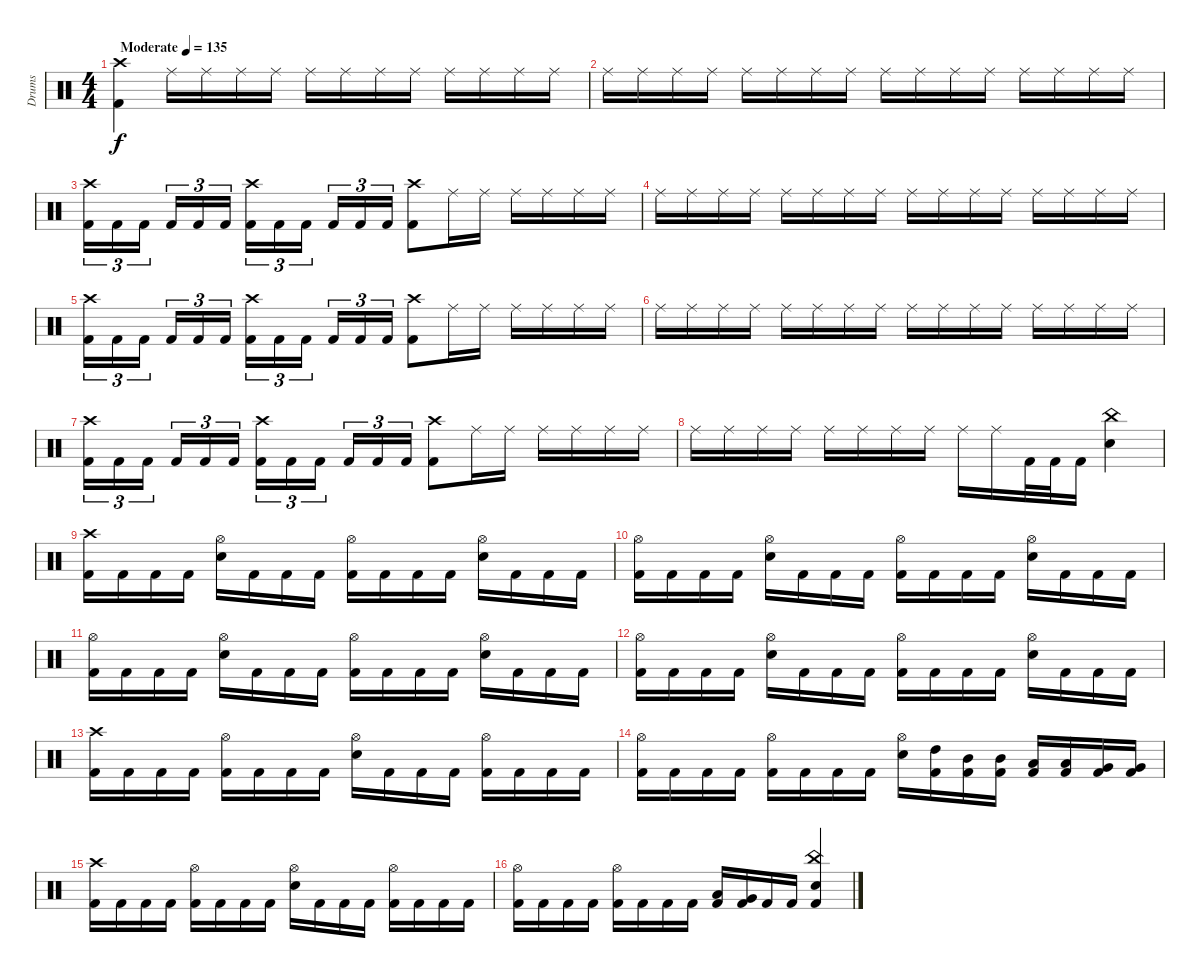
\track ("Drums" "Drums") {instrument percussion}
\staff {score}
\articulation defaults
\ts (4 4)
\tempo (135 "Moderate")
\clef neutral
\ks c
("Crash high (hit)" "Kick (hit) 2").4{dy f} "Ride (middle)".16 "Ride (middle)".16 "Ride (middle)".16 "Ride (middle)".16 "Ride (middle)".16 "Ride (middle)".16 "Ride (middle)".16 "Ride (middle)".16 "Ride (middle)".16 "Ride (middle)".16 "Ride (middle)".16 "Ride (middle)".16 |
"Ride (middle)".16 "Ride (middle)".16 "Ride (middle)".16 "Ride (middle)".16 "Ride (middle)".16 "Ride (middle)".16 "Ride (middle)".16 "Ride (middle)".16 "Ride (middle)".16 "Ride (middle)".16 "Ride (middle)".16 "Ride (middle)".16 "Ride (middle)".16 "Ride (middle)".16 "Ride (middle)".16 "Ride (middle)".16 |
("Crash high (hit)" "Kick (hit) 2").16{tu (3 2)} "Kick (hit) 2".16{tu (3 2)} "Kick (hit) 2".16{tu (3 2) beam splitsecondary} "Kick (hit) 2".16{tu (3 2)} "Kick (hit) 2".16{tu (3 2)} "Kick (hit) 2".16{tu (3 2)} ("Crash high (hit)" "Kick (hit) 2").16{tu (3 2)} "Kick (hit) 2".16{tu (3 2)} "Kick (hit) 2".16{tu (3 2) beam splitsecondary} "Kick (hit) 2".16{tu (3 2)} "Kick (hit) 2".16{tu (3 2)} "Kick (hit) 2".16{tu (3 2)} ("Crash high (hit)" "Kick (hit) 2").8 "Ride (middle)".16 "Ride (middle)".16 "Ride (middle)".16 "Ride (middle)".16 "Ride (middle)".16 "Ride (middle)".16 |
"Ride (middle)".16 "Ride (middle)".16 "Ride (middle)".16 "Ride (middle)".16 "Ride (middle)".16 "Ride (middle)".16 "Ride (middle)".16 "Ride (middle)".16 "Ride (middle)".16 "Ride (middle)".16 "Ride (middle)".16 "Ride (middle)".16 "Ride (middle)".16 "Ride (middle)".16 "Ride (middle)".16 "Ride (middle)".16 |
("Crash high (hit)" "Kick (hit) 2").16{tu (3 2)} "Kick (hit) 2".16{tu (3 2)} "Kick (hit) 2".16{tu (3 2) beam splitsecondary} "Kick (hit) 2".16{tu (3 2)} "Kick (hit) 2".16{tu (3 2)} "Kick (hit) 2".16{tu (3 2)} ("Crash high (hit)" "Kick (hit) 2").16{tu (3 2)} "Kick (hit) 2".16{tu (3 2)} "Kick (hit) 2".16{tu (3 2) beam splitsecondary} "Kick (hit) 2".16{tu (3 2)} "Kick (hit) 2".16{tu (3 2)} "Kick (hit) 2".16{tu (3 2)} ("Crash high (hit)" "Kick (hit) 2").8 "Ride (middle)".16 "Ride (middle)".16 "Ride (middle)".16 "Ride (middle)".16 "Ride (middle)".16 "Ride (middle)".16 |
"Ride (middle)".16 "Ride (middle)".16 "Ride (middle)".16 "Ride (middle)".16 "Ride (middle)".16 "Ride (middle)".16 "Ride (middle)".16 "Ride (middle)".16 "Ride (middle)".16 "Ride (middle)".16 "Ride (middle)".16 "Ride (middle)".16 "Ride (middle)".16 "Ride (middle)".16 "Ride (middle)".16 "Ride (middle)".16 |
("Crash high (hit)" "Kick (hit) 2").16{tu (3 2)} "Kick (hit) 2".16{tu (3 2)} "Kick (hit) 2".16{tu (3 2) beam splitsecondary} "Kick (hit) 2".16{tu (3 2)} "Kick (hit) 2".16{tu (3 2)} "Kick (hit) 2".16{tu (3 2)} ("Crash high (hit)" "Kick (hit) 2").16{tu (3 2)} "Kick (hit) 2".16{tu (3 2)} "Kick (hit) 2".16{tu (3 2) beam splitsecondary} "Kick (hit) 2".16{tu (3 2)} "Kick (hit) 2".16{tu (3 2)} "Kick (hit) 2".16{tu (3 2)} ("Crash high (hit)" "Kick (hit) 2").8 "Ride (middle)".16 "Ride (middle)".16 "Ride (middle)".16 "Ride (middle)".16 "Ride (middle)".16 "Ride (middle)".16 |
"Ride (middle)".16 "Ride (middle)".16 "Ride (middle)".16 "Ride (middle)".16 "Ride (middle)".16 "Ride (middle)".16 "Ride (middle)".16 "Ride (middle)".16 "Ride (middle)".16 "Ride (middle)".16 "Kick (hit) 2".32 "Kick (hit) 2".32 "Kick (hit) 2".16 ("China (hit)" "Snare (hit) 2").4 |
("Crash high (hit)" "Kick (hit) 2").16 "Kick (hit) 2".16 "Kick (hit) 2".16 "Kick (hit) 2".16 ("Hi-Hat (open)" "Snare (hit) 2").16 "Kick (hit) 2".16 "Kick (hit) 2".16 "Kick (hit) 2".16 ("Hi-Hat (open)" "Kick (hit) 2").16 "Kick (hit) 2".16 "Kick (hit) 2".16 "Kick (hit) 2".16 ("Hi-Hat (open)" "Snare (hit) 2").16 "Kick (hit) 2".16 "Kick (hit) 2".16 "Kick (hit) 2".16 |
("Hi-Hat (open)" "Kick (hit) 2").16 "Kick (hit) 2".16 "Kick (hit) 2".16 "Kick (hit) 2".16 ("Hi-Hat (open)" "Snare (hit) 2").16 "Kick (hit) 2".16 "Kick (hit) 2".16 "Kick (hit) 2".16 ("Hi-Hat (open)" "Kick (hit) 2").16 "Kick (hit) 2".16 "Kick (hit) 2".16 "Kick (hit) 2".16 ("Hi-Hat (open)" "Snare (hit) 2").16 "Kick (hit) 2".16 "Kick (hit) 2".16 "Kick (hit) 2".16 |
("Hi-Hat (open)" "Kick (hit) 2").16 "Kick (hit) 2".16 "Kick (hit) 2".16 "Kick (hit) 2".16 ("Hi-Hat (open)" "Snare (hit) 2").16 "Kick (hit) 2".16 "Kick (hit) 2".16 "Kick (hit) 2".16 ("Hi-Hat (open)" "Kick (hit) 2").16 "Kick (hit) 2".16 "Kick (hit) 2".16 "Kick (hit) 2".16 ("Hi-Hat (open)" "Snare (hit) 2").16 "Kick (hit) 2".16 "Kick (hit) 2".16 "Kick (hit) 2".16 |
("Hi-Hat (open)" "Kick (hit) 2").16 "Kick (hit) 2".16 "Kick (hit) 2".16 "Kick (hit) 2".16 ("Hi-Hat (open)" "Snare (hit) 2").16 "Kick (hit) 2".16 "Kick (hit) 2".16 "Kick (hit) 2".16 ("Hi-Hat (open)" "Kick (hit) 2").16 "Kick (hit) 2".16 "Kick (hit) 2".16 "Kick (hit) 2".16 ("Hi-Hat (open)" "Snare (hit) 2").16 "Kick (hit) 2".16 "Kick (hit) 2".16 "Kick (hit) 2".16 |
("Crash high (hit)" "Kick (hit) 2").16 "Kick (hit) 2".16 "Kick (hit) 2".16 "Kick (hit) 2".16 ("Hi-Hat (open)" "Kick (hit) 2").16 "Kick (hit) 2".16 "Kick (hit) 2".16 "Kick (hit) 2".16 ("Hi-Hat (open)" "Snare (hit) 2").16 "Kick (hit) 2".16 "Kick (hit) 2".16 "Kick (hit) 2".16 ("Hi-Hat (open)" "Kick (hit) 2").16 "Kick (hit) 2".16 "Kick (hit) 2".16 "Kick (hit) 2".16 |
("Hi-Hat (open)" "Kick (hit) 2").16 "Kick (hit) 2".16 "Kick (hit) 2".16 "Kick (hit) 2".16 ("Hi-Hat (open)" "Kick (hit) 2").16 "Kick (hit) 2".16 "Kick (hit) 2".16 "Kick (hit) 2".16 ("Hi-Hat (open)" "Snare (hit) 2").16 ("High Tom (hit)" "Kick (hit) 2").16 ("Mid Tom (hit)" "Kick (hit) 2").16 ("Mid Tom (hit)" "Kick (hit) 2").16 ("Low Tom (hit)" "Kick (hit) 2").16 ("Low Tom (hit)" "Kick (hit) 2").16 ("Very Low Tom (hit)" "Kick (hit) 2").16 ("Very Low Tom (hit)" "Kick (hit) 2").16 |
("Crash high (hit)" "Kick (hit) 2").16 "Kick (hit) 2".16 "Kick (hit) 2".16 "Kick (hit) 2".16 ("Hi-Hat (open)" "Kick (hit) 2").16 "Kick (hit) 2".16 "Kick (hit) 2".16 "Kick (hit) 2".16 ("Hi-Hat (open)" "Snare (hit) 2").16 "Kick (hit) 2".16 "Kick (hit) 2".16 "Kick (hit) 2".16 ("Hi-Hat (open)" "Kick (hit) 2").16 "Kick (hit) 2".16 "Kick (hit) 2".16 "Kick (hit) 2".16 |
("Hi-Hat (open)" "Kick (hit) 2").16 "Kick (hit) 2".16 "Kick (hit) 2".16 "Kick (hit) 2".16 ("Hi-Hat (open)" "Kick (hit) 2").16 "Kick (hit) 2".16 "Kick (hit) 2".16 "Kick (hit) 2".16 ("Low Tom (hit)" "Kick (hit) 2").16 ("Very Low Tom (hit)" "Kick (hit) 2").16 "Kick (hit) 2".16 "Kick (hit) 2".16 ("China (hit)" "Snare (hit) 2" "Kick (hit) 2").4
